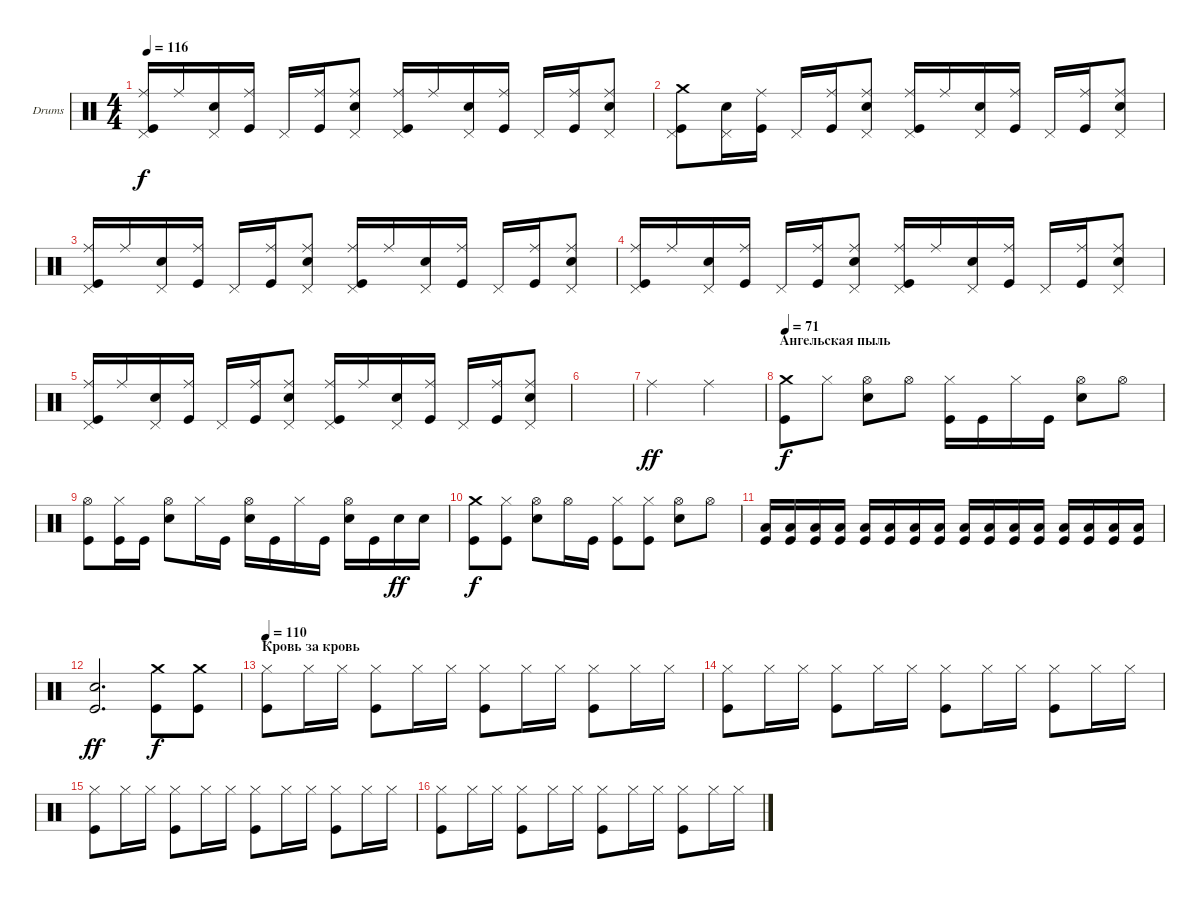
\defaultSystemsLayout 4
\bracketExtendMode nobrackets
\firstSystemTrackNameOrientation horizontal
\otherSystemsTrackNameOrientation horizontal
\track ("Ударные" "Drums") {instrument percussion}
\staff {score}
\articulation defaults
\ts (4 4)
\tempo 116
\clef neutral
\ks c
("Kick (hit)" "Ride (middle)" "Pedal Hi-Hat (hit)").16{dy f} "Ride (middle)".16 ("Snare (hit) 2" "Pedal Hi-Hat (hit)").16 ("Kick (hit)" "Ride (middle)").16 "Pedal Hi-Hat (hit)".16 ("Ride (middle)" "Kick (hit)").16 ("Snare (hit) 2" "Ride (middle)" "Pedal Hi-Hat (hit)").8 ("Kick (hit)" "Ride (middle)" "Pedal Hi-Hat (hit)").16 "Ride (middle)".16 ("Snare (hit) 2" "Pedal Hi-Hat (hit)").16 ("Kick (hit)" "Ride (middle)").16 "Pedal Hi-Hat (hit)".16 ("Ride (middle)" "Kick (hit)").16 ("Ride (middle)" "Snare (hit) 2" "Pedal Hi-Hat (hit)").8 |
("Kick (hit)" "Crash medium (hit)" "Pedal Hi-Hat (hit)").8 ("Snare (hit) 2" "Pedal Hi-Hat (hit)").16 ("Kick (hit)" "Ride (middle)").16 "Pedal Hi-Hat (hit)".16 ("Ride (middle)" "Kick (hit)").16 ("Snare (hit) 2" "Ride (middle)" "Pedal Hi-Hat (hit)").8 ("Kick (hit)" "Ride (middle)" "Pedal Hi-Hat (hit)").16 "Ride (middle)".16 ("Snare (hit) 2" "Pedal Hi-Hat (hit)").16 ("Kick (hit)" "Ride (middle)").16 "Pedal Hi-Hat (hit)".16 ("Ride (middle)" "Kick (hit)").16 ("Ride (middle)" "Snare (hit) 2" "Pedal Hi-Hat (hit)").8 |
("Kick (hit)" "Ride (middle)" "Pedal Hi-Hat (hit)").16 "Ride (middle)".16 ("Snare (hit) 2" "Pedal Hi-Hat (hit)").16 ("Kick (hit)" "Ride (middle)").16 "Pedal Hi-Hat (hit)".16 ("Ride (middle)" "Kick (hit)").16 ("Snare (hit) 2" "Ride (middle)" "Pedal Hi-Hat (hit)").8 ("Kick (hit)" "Ride (middle)" "Pedal Hi-Hat (hit)").16 "Ride (middle)".16 ("Snare (hit) 2" "Pedal Hi-Hat (hit)").16 ("Kick (hit)" "Ride (middle)").16 "Pedal Hi-Hat (hit)".16 ("Ride (middle)" "Kick (hit)").16 ("Ride (middle)" "Snare (hit) 2" "Pedal Hi-Hat (hit)").8 |
("Kick (hit)" "Ride (middle)" "Pedal Hi-Hat (hit)").16 "Ride (middle)".16 ("Snare (hit) 2" "Pedal Hi-Hat (hit)").16 ("Kick (hit)" "Ride (middle)").16 "Pedal Hi-Hat (hit)".16 ("Ride (middle)" "Kick (hit)").16 ("Snare (hit) 2" "Ride (middle)" "Pedal Hi-Hat (hit)").8 ("Kick (hit)" "Ride (middle)" "Pedal Hi-Hat (hit)").16 "Ride (middle)".16 ("Snare (hit) 2" "Pedal Hi-Hat (hit)").16 ("Kick (hit)" "Ride (middle)").16 "Pedal Hi-Hat (hit)".16 ("Ride (middle)" "Kick (hit)").16 ("Ride (middle)" "Snare (hit) 2" "Pedal Hi-Hat (hit)").8 |
("Kick (hit)" "Ride (middle)" "Pedal Hi-Hat (hit)").16 "Ride (middle)".16 ("Snare (hit) 2" "Pedal Hi-Hat (hit)").16 ("Kick (hit)" "Ride (middle)").16 "Pedal Hi-Hat (hit)".16 ("Ride (middle)" "Kick (hit)").16 ("Snare (hit) 2" "Ride (middle)" "Pedal Hi-Hat (hit)").8 ("Kick (hit)" "Ride (middle)" "Pedal Hi-Hat (hit)").16 "Ride (middle)".16 ("Snare (hit) 2" "Pedal Hi-Hat (hit)").16 ("Kick (hit)" "Ride (middle)").16 "Pedal Hi-Hat (hit)".16 ("Ride (middle)" "Kick (hit)").16 ("Ride (middle)" "Snare (hit) 2" "Pedal Hi-Hat (hit)").8 |
|
"Ride (middle)".2{dy ff} "Ride (middle)".2 |
\section ("" "Ангельская пыль")
\tempo 71
("Crash medium (hit)" "Kick (hit)").8{dy f} "Hi-Hat (closed)".8 ("Snare (hit) 2" "Hi-Hat (open)").8 "Hi-Hat (open)".8 ("Hi-Hat (closed)" "Kick (hit)").16 "Kick (hit)".16 "Hi-Hat (closed)".16 "Kick (hit)".16 ("Snare (hit) 2" "Hi-Hat (open)").8 "Hi-Hat (open)".8 |
("Hi-Hat (open)" "Kick (hit)").8 ("Kick (hit)" "Hi-Hat (closed)").16 "Kick (hit)".16 ("Snare (hit) 2" "Hi-Hat (open)").8 "Hi-Hat (closed)".16 "Kick (hit)".16 ("Snare (hit) 2" "Hi-Hat (open)").16 "Kick (hit)".16 "Hi-Hat (closed)".16 "Kick (hit)".16 ("Snare (hit) 2" "Hi-Hat (open)").16 "Kick (hit)".16 "Snare (hit) 2".16{dy ff} "Snare (hit) 2".16 |
("Kick (hit)" "Crash medium (hit)").8{dy f} ("Hi-Hat (closed)" "Kick (hit)").8 ("Snare (hit) 2" "Hi-Hat (open)").8 "Hi-Hat (open)".16 "Kick (hit)".16 ("Kick (hit)" "Hi-Hat (closed)").8 ("Kick (hit)" "Hi-Hat (closed)").8 ("Snare (hit) 2" "Hi-Hat (open)").8 "Hi-Hat (open)".8 |
("Kick (hit)" "Low Tom (hit)").16 ("Kick (hit)" "Low Tom (hit)").16 ("Kick (hit)" "Low Tom (hit)").16 ("Kick (hit)" "Low Tom (hit)").16 ("Kick (hit)" "Low Tom (hit)").16 ("Kick (hit)" "Low Tom (hit)").16 ("Kick (hit)" "Low Tom (hit)").16 ("Kick (hit)" "Low Tom (hit)").16 ("Kick (hit)" "Low Tom (hit)").16 ("Kick (hit)" "Low Tom (hit)").16 ("Kick (hit)" "Low Tom (hit)").16 ("Kick (hit)" "Low Tom (hit)").16 ("Kick (hit)" "Low Tom (hit)").16 ("Kick (hit)" "Low Tom (hit)").16 ("Kick (hit)" "Low Tom (hit)").16 ("Kick (hit)" "Low Tom (hit)").16 |
("Snare (hit) 2" "Kick (hit)").2{d dy ff} ("Kick (hit)" "Crash medium (hit)").8{dy f} ("Kick (hit)" "Crash medium (hit)").8 |
\section ("" "Кровь за кровь")
\tempo 110
("Kick (hit)" "Hi-Hat (closed)").8 "Hi-Hat (closed)".16 "Hi-Hat (closed)".16 ("Kick (hit)" "Hi-Hat (closed)").8 "Hi-Hat (closed)".16 "Hi-Hat (closed)".16 ("Hi-Hat (closed)" "Kick (hit)").8 "Hi-Hat (closed)".16 "Hi-Hat (closed)".16 ("Kick (hit)" "Hi-Hat (closed)").8 "Hi-Hat (closed)".16 "Hi-Hat (closed)".16 |
("Kick (hit)" "Hi-Hat (closed)").8 "Hi-Hat (closed)".16 "Hi-Hat (closed)".16 ("Kick (hit)" "Hi-Hat (closed)").8 "Hi-Hat (closed)".16 "Hi-Hat (closed)".16 ("Hi-Hat (closed)" "Kick (hit)").8 "Hi-Hat (closed)".16 "Hi-Hat (closed)".16 ("Kick (hit)" "Hi-Hat (closed)").8 "Hi-Hat (closed)".16 "Hi-Hat (closed)".16 |
("Kick (hit)" "Hi-Hat (closed)").8 "Hi-Hat (closed)".16 "Hi-Hat (closed)".16 ("Kick (hit)" "Hi-Hat (closed)").8 "Hi-Hat (closed)".16 "Hi-Hat (closed)".16 ("Hi-Hat (closed)" "Kick (hit)").8 "Hi-Hat (closed)".16 "Hi-Hat (closed)".16 ("Kick (hit)" "Hi-Hat (closed)").8 "Hi-Hat (closed)".16 "Hi-Hat (closed)".16 |
("Kick (hit)" "Hi-Hat (closed)").8 "Hi-Hat (closed)".16 "Hi-Hat (closed)".16 ("Kick (hit)" "Hi-Hat (closed)").8 "Hi-Hat (closed)".16 "Hi-Hat (closed)".16 ("Hi-Hat (closed)" "Kick (hit)").8 "Hi-Hat (closed)".16 "Hi-Hat (closed)".16 ("Kick (hit)" "Hi-Hat (closed)").8 "Hi-Hat (closed)".16 "Hi-Hat (closed)".16
